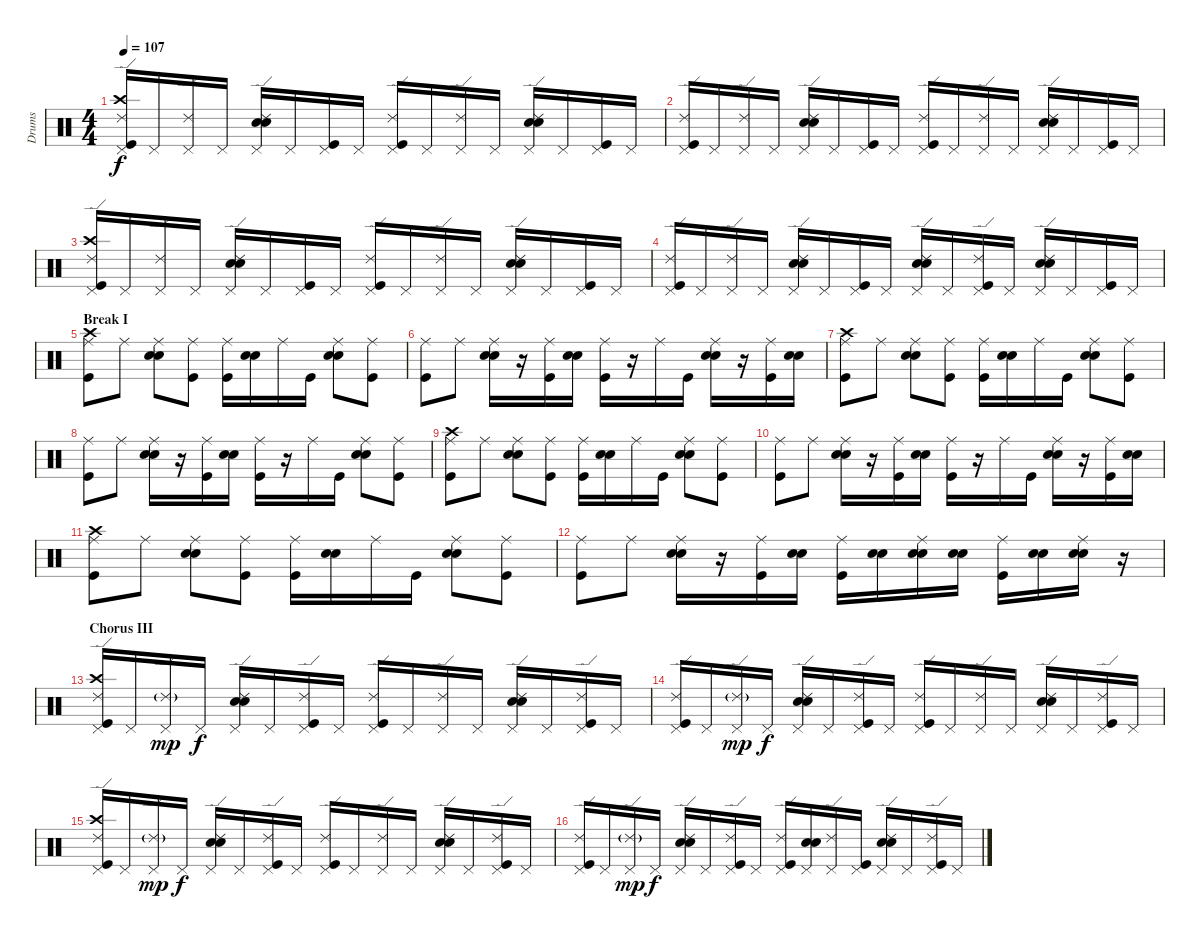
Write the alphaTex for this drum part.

\track ("Drums" "Drums") {instrument percussion}
\staff {score}
\articulation defaults
\ts (4 4)
\tempo 107
\clef neutral
\ks c
("Pedal Hi-Hat (hit)" "Crash high (hit)" "Ride (edge) 2" "Kick (hit)").16{dy f} "Pedal Hi-Hat (hit)".16 ("Pedal Hi-Hat (hit)" "Ride (edge) 2").16 "Pedal Hi-Hat (hit)".16 ("Pedal Hi-Hat (hit)" "Ride (edge) 2" "Electric Snare (hit)" "Snare (hit) 2").16 "Pedal Hi-Hat (hit)".16 ("Pedal Hi-Hat (hit)" "Kick (hit)").16 "Pedal Hi-Hat (hit)".16 ("Pedal Hi-Hat (hit)" "Ride (edge) 2" "Kick (hit)").16 "Pedal Hi-Hat (hit)".16 ("Pedal Hi-Hat (hit)" "Ride (edge) 2").16 "Pedal Hi-Hat (hit)".16 ("Pedal Hi-Hat (hit)" "Ride (edge) 2" "Electric Snare (hit)" "Snare (hit) 2").16 "Pedal Hi-Hat (hit)".16 ("Pedal Hi-Hat (hit)" "Kick (hit)").16 "Pedal Hi-Hat (hit)".16 |
("Pedal Hi-Hat (hit)" "Ride (edge) 2" "Kick (hit)").16 "Pedal Hi-Hat (hit)".16 ("Pedal Hi-Hat (hit)" "Ride (edge) 2").16 "Pedal Hi-Hat (hit)".16 ("Pedal Hi-Hat (hit)" "Ride (edge) 2" "Electric Snare (hit)" "Snare (hit) 2").16 "Pedal Hi-Hat (hit)".16 ("Pedal Hi-Hat (hit)" "Kick (hit)").16 "Pedal Hi-Hat (hit)".16 ("Pedal Hi-Hat (hit)" "Ride (edge) 2" "Kick (hit)").16 "Pedal Hi-Hat (hit)".16 ("Pedal Hi-Hat (hit)" "Ride (edge) 2").16 "Pedal Hi-Hat (hit)".16 ("Pedal Hi-Hat (hit)" "Ride (edge) 2" "Electric Snare (hit)" "Snare (hit) 2").16 "Pedal Hi-Hat (hit)".16 ("Pedal Hi-Hat (hit)" "Kick (hit)").16 "Pedal Hi-Hat (hit)".16 |
("Pedal Hi-Hat (hit)" "Crash high (hit)" "Ride (edge) 2" "Kick (hit)").16 "Pedal Hi-Hat (hit)".16 ("Pedal Hi-Hat (hit)" "Ride (edge) 2").16 "Pedal Hi-Hat (hit)".16 ("Pedal Hi-Hat (hit)" "Ride (edge) 2" "Electric Snare (hit)" "Snare (hit) 2").16 "Pedal Hi-Hat (hit)".16 ("Pedal Hi-Hat (hit)" "Kick (hit)").16 "Pedal Hi-Hat (hit)".16 ("Pedal Hi-Hat (hit)" "Ride (edge) 2" "Kick (hit)").16 "Pedal Hi-Hat (hit)".16 ("Pedal Hi-Hat (hit)" "Ride (edge) 2").16 "Pedal Hi-Hat (hit)".16 ("Pedal Hi-Hat (hit)" "Ride (edge) 2" "Electric Snare (hit)" "Snare (hit) 2").16 "Pedal Hi-Hat (hit)".16 ("Pedal Hi-Hat (hit)" "Kick (hit)").16 "Pedal Hi-Hat (hit)".16 |
("Pedal Hi-Hat (hit)" "Ride (edge) 2" "Kick (hit)").16 "Pedal Hi-Hat (hit)".16 ("Pedal Hi-Hat (hit)" "Ride (edge) 2").16 "Pedal Hi-Hat (hit)".16 ("Pedal Hi-Hat (hit)" "Ride (edge) 2" "Electric Snare (hit)" "Snare (hit) 2").16 "Pedal Hi-Hat (hit)".16 ("Pedal Hi-Hat (hit)" "Kick (hit)").16 "Pedal Hi-Hat (hit)".16 ("Pedal Hi-Hat (hit)" "Ride (edge) 2" "Electric Snare (hit)" "Snare (hit) 2").16 "Pedal Hi-Hat (hit)".16 ("Pedal Hi-Hat (hit)" "Ride (edge) 2" "Kick (hit)").16 "Pedal Hi-Hat (hit)".16 ("Pedal Hi-Hat (hit)" "Ride (edge) 2" "Electric Snare (hit)" "Snare (hit) 2").16 "Pedal Hi-Hat (hit)".16 ("Pedal Hi-Hat (hit)" "Kick (hit)").16 "Pedal Hi-Hat (hit)".16 |
\section ("" "Break I")
("Crash high (hit)" "Ride (middle)" "Kick (hit)").8 "Ride (middle)".8 ("Ride (middle)" "Electric Snare (hit)" "Snare (hit) 2").8 ("Ride (middle)" "Kick (hit)").8 ("Ride (middle)" "Kick (hit)").16 ("Electric Snare (hit)" "Snare (hit) 2").16 "Ride (middle)".16 "Kick (hit)".16 ("Ride (middle)" "Electric Snare (hit)" "Snare (hit) 2").8 ("Ride (middle)" "Kick (hit)").8 |
("Ride (middle)" "Kick (hit)").8 "Ride (middle)".8 ("Ride (middle)" "Electric Snare (hit)" "Snare (hit) 2").16 r.16 ("Ride (middle)" "Kick (hit)").16 ("Electric Snare (hit)" "Snare (hit) 2").16 ("Ride (middle)" "Kick (hit)").16 r.16 "Ride (middle)".16 "Kick (hit)".16 ("Ride (middle)" "Electric Snare (hit)" "Snare (hit) 2").16 r.16 ("Ride (middle)" "Kick (hit)").16 ("Electric Snare (hit)" "Snare (hit) 2").16 |
("Crash high (hit)" "Ride (middle)" "Kick (hit)").8 "Ride (middle)".8 ("Ride (middle)" "Electric Snare (hit)" "Snare (hit) 2").8 ("Ride (middle)" "Kick (hit)").8 ("Ride (middle)" "Kick (hit)").16 ("Electric Snare (hit)" "Snare (hit) 2").16 "Ride (middle)".16 "Kick (hit)".16 ("Ride (middle)" "Electric Snare (hit)" "Snare (hit) 2").8 ("Ride (middle)" "Kick (hit)").8 |
("Ride (middle)" "Kick (hit)").8 "Ride (middle)".8 ("Ride (middle)" "Electric Snare (hit)" "Snare (hit) 2").16 r.16 ("Ride (middle)" "Kick (hit)").16 ("Electric Snare (hit)" "Snare (hit) 2").16 ("Ride (middle)" "Kick (hit)").16 r.16 "Ride (middle)".16 "Kick (hit)".16 ("Ride (middle)" "Electric Snare (hit)" "Snare (hit) 2").8 ("Ride (middle)" "Kick (hit)").8 |
("Crash high (hit)" "Ride (middle)" "Kick (hit)").8 "Ride (middle)".8 ("Ride (middle)" "Electric Snare (hit)" "Snare (hit) 2").8 ("Ride (middle)" "Kick (hit)").8 ("Ride (middle)" "Kick (hit)").16 ("Electric Snare (hit)" "Snare (hit) 2").16 "Ride (middle)".16 "Kick (hit)".16 ("Ride (middle)" "Electric Snare (hit)" "Snare (hit) 2").8 ("Ride (middle)" "Kick (hit)").8 |
("Ride (middle)" "Kick (hit)").8 "Ride (middle)".8 ("Ride (middle)" "Electric Snare (hit)" "Snare (hit) 2").16 r.16 ("Ride (middle)" "Kick (hit)").16 ("Electric Snare (hit)" "Snare (hit) 2").16 ("Ride (middle)" "Kick (hit)").16 r.16 "Ride (middle)".16 "Kick (hit)".16 ("Ride (middle)" "Electric Snare (hit)" "Snare (hit) 2").16 r.16 ("Ride (middle)" "Kick (hit)").16 ("Electric Snare (hit)" "Snare (hit) 2").16 |
("Crash high (hit)" "Ride (middle)" "Kick (hit)").8 "Ride (middle)".8 ("Ride (middle)" "Electric Snare (hit)" "Snare (hit) 2").8 ("Ride (middle)" "Kick (hit)").8 ("Ride (middle)" "Kick (hit)").16 ("Electric Snare (hit)" "Snare (hit) 2").16 "Ride (middle)".16 "Kick (hit)".16 ("Ride (middle)" "Electric Snare (hit)" "Snare (hit) 2").8 ("Ride (middle)" "Kick (hit)").8 |
("Ride (middle)" "Kick (hit)").8 "Ride (middle)".8 ("Ride (middle)" "Electric Snare (hit)" "Snare (hit) 2").16 r.16 ("Ride (middle)" "Kick (hit)").16 ("Electric Snare (hit)" "Snare (hit) 2").16 ("Ride (middle)" "Kick (hit)").16 ("Electric Snare (hit)" "Snare (hit) 2").16 ("Ride (middle)" "Electric Snare (hit)" "Snare (hit) 2").16 ("Electric Snare (hit)" "Snare (hit) 2").16 ("Ride (middle)" "Kick (hit)").16 ("Electric Snare (hit)" "Snare (hit) 2").16 ("Ride (middle)" "Electric Snare (hit)" "Snare (hit) 2").16 r.16 |
\section ("" "Chorus III")
("Pedal Hi-Hat (hit)" "Crash high (hit)" "Ride (edge) 2" "Kick (hit)").16 "Pedal Hi-Hat (hit)".16 ("Pedal Hi-Hat (hit)" "Ride (edge) 2"{g}).16{dy mp} "Pedal Hi-Hat (hit)".16{dy f} ("Pedal Hi-Hat (hit)" "Ride (edge) 2" "Electric Snare (hit)" "Snare (hit) 2").16 "Pedal Hi-Hat (hit)".16 ("Pedal Hi-Hat (hit)" "Ride (edge) 2" "Kick (hit)").16 "Pedal Hi-Hat (hit)".16 ("Pedal Hi-Hat (hit)" "Ride (edge) 2" "Kick (hit)").16 "Pedal Hi-Hat (hit)".16 ("Pedal Hi-Hat (hit)" "Ride (edge) 2").16 "Pedal Hi-Hat (hit)".16 ("Pedal Hi-Hat (hit)" "Ride (edge) 2" "Electric Snare (hit)" "Snare (hit) 2").16 "Pedal Hi-Hat (hit)".16 ("Pedal Hi-Hat (hit)" "Ride (edge) 2" "Kick (hit)").16 "Pedal Hi-Hat (hit)".16 |
("Pedal Hi-Hat (hit)" "Ride (edge) 2" "Kick (hit)").16 "Pedal Hi-Hat (hit)".16 ("Pedal Hi-Hat (hit)" "Ride (edge) 2"{g}).16{dy mp} "Pedal Hi-Hat (hit)".16{dy f} ("Pedal Hi-Hat (hit)" "Ride (edge) 2" "Electric Snare (hit)" "Snare (hit) 2").16 "Pedal Hi-Hat (hit)".16 ("Pedal Hi-Hat (hit)" "Ride (edge) 2" "Kick (hit)").16 "Pedal Hi-Hat (hit)".16 ("Pedal Hi-Hat (hit)" "Ride (edge) 2" "Kick (hit)").16 "Pedal Hi-Hat (hit)".16 ("Pedal Hi-Hat (hit)" "Ride (edge) 2").16 "Pedal Hi-Hat (hit)".16 ("Pedal Hi-Hat (hit)" "Ride (edge) 2" "Electric Snare (hit)" "Snare (hit) 2").16 "Pedal Hi-Hat (hit)".16 ("Pedal Hi-Hat (hit)" "Ride (edge) 2" "Kick (hit)").16 "Pedal Hi-Hat (hit)".16 |
("Pedal Hi-Hat (hit)" "Crash high (hit)" "Ride (edge) 2" "Kick (hit)").16 "Pedal Hi-Hat (hit)".16 ("Pedal Hi-Hat (hit)" "Ride (edge) 2"{g}).16{dy mp} "Pedal Hi-Hat (hit)".16{dy f} ("Pedal Hi-Hat (hit)" "Ride (edge) 2" "Electric Snare (hit)" "Snare (hit) 2").16 "Pedal Hi-Hat (hit)".16 ("Pedal Hi-Hat (hit)" "Ride (edge) 2" "Kick (hit)").16 "Pedal Hi-Hat (hit)".16 ("Pedal Hi-Hat (hit)" "Ride (edge) 2" "Kick (hit)").16 "Pedal Hi-Hat (hit)".16 ("Pedal Hi-Hat (hit)" "Ride (edge) 2").16 "Pedal Hi-Hat (hit)".16 ("Pedal Hi-Hat (hit)" "Ride (edge) 2" "Electric Snare (hit)" "Snare (hit) 2").16 "Pedal Hi-Hat (hit)".16 ("Pedal Hi-Hat (hit)" "Ride (edge) 2" "Kick (hit)").16 "Pedal Hi-Hat (hit)".16 |
("Pedal Hi-Hat (hit)" "Ride (edge) 2" "Kick (hit)").16 "Pedal Hi-Hat (hit)".16 ("Pedal Hi-Hat (hit)" "Ride (edge) 2"{g}).16{dy mp} "Pedal Hi-Hat (hit)".16{dy f} ("Pedal Hi-Hat (hit)" "Ride (edge) 2" "Electric Snare (hit)" "Snare (hit) 2").16 "Pedal Hi-Hat (hit)".16 ("Pedal Hi-Hat (hit)" "Ride (edge) 2" "Kick (hit)").16 "Pedal Hi-Hat (hit)".16 ("Pedal Hi-Hat (hit)" "Ride (edge) 2" "Kick (hit)").16 ("Pedal Hi-Hat (hit)" "Electric Snare (hit)" "Snare (hit) 2").16 ("Pedal Hi-Hat (hit)" "Ride (edge) 2").16 ("Pedal Hi-Hat (hit)" "Kick (hit)").16 ("Pedal Hi-Hat (hit)" "Ride (edge) 2" "Electric Snare (hit)" "Snare (hit) 2").16 "Pedal Hi-Hat (hit)".16 ("Pedal Hi-Hat (hit)" "Ride (edge) 2" "Kick (hit)").16 "Pedal Hi-Hat (hit)".16
